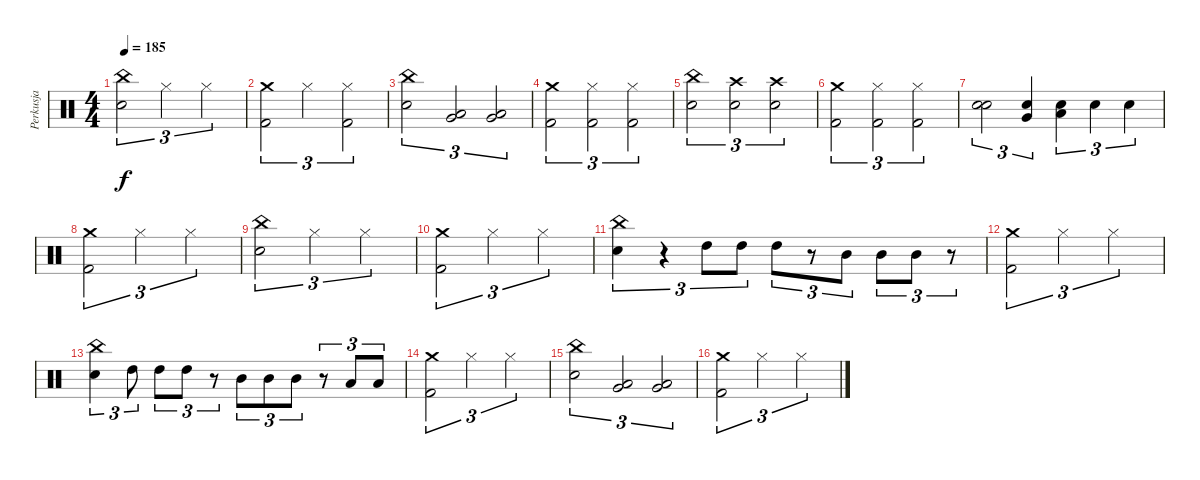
\track ("Perkusja" "Perkusja") {instrument percussion}
\staff {score}
\articulation defaults
\ts (4 4)
\tempo 185
\clef neutral
\ks c
("Snare (hit) 2" "China (hit)").2{tu (3 2) dy f} "Hi-Hat (closed)".2{tu (3 2)} "Hi-Hat (closed)".2{tu (3 2)} |
("Kick (hit) 2" "Crash medium (hit)").2{tu (3 2)} "Hi-Hat (closed)".2{tu (3 2)} ("Kick (hit) 2" "Hi-Hat (closed)").2{tu (3 2)} |
("China (hit)" "Snare (hit) 2").2{tu (3 2)} ("Low Tom (hit)" "Very Low Tom (hit)").2{tu (3 2)} ("Very Low Tom (hit)" "Low Floor Tom (hit)").2{tu (3 2)} |
("Kick (hit) 2" "Crash medium (hit)").2{tu (3 2)} ("Kick (hit) 2" "Hi-Hat (closed)").2{tu (3 2)} ("Kick (hit) 2" "Hi-Hat (closed)").2{tu (3 2)} |
("Snare (hit) 2" "China (hit)").2{tu (3 2)} ("Snare (hit) 2" "Crash high (hit)").2{tu (3 2)} ("Snare (hit) 2" "Crash high (hit)").2{tu (3 2)} |
("Kick (hit) 2" "Crash medium (hit)").2{tu (3 2)} ("Kick (hit) 2" "Hi-Hat (closed)").2{tu (3 2)} ("Kick (hit) 2" "Hi-Hat (closed)").2{tu (3 2)} |
("Snare (hit) 2" "Snare (hit) 2").2{tu (3 2)} ("Snare (hit) 2" "Very Low Tom (hit)").4{tu (3 2)} ("Snare (hit) 2" "Low Floor Tom (hit)").4{tu (3 2)} "Snare (hit) 2".4{tu (3 2)} "Snare (hit) 2".4{tu (3 2)} |
("Kick (hit) 2" "Crash medium (hit)").2{tu (3 2)} "Hi-Hat (closed)".2{tu (3 2)} "Hi-Hat (closed)".2{tu (3 2)} |
("Snare (hit) 2" "China (hit)").2{tu (3 2)} "Hi-Hat (closed)".2{tu (3 2)} "Hi-Hat (closed)".2{tu (3 2)} |
("Kick (hit) 2" "Crash medium (hit)").2{tu (3 2)} "Hi-Hat (closed)".2{tu (3 2)} "Hi-Hat (closed)".2{tu (3 2)} |
("Snare (hit) 2" "China (hit)").4{tu (3 2)} r.4{tu (3 2)} "High Tom (hit)".8{tu (3 2)} "High Tom (hit)".8{tu (3 2)} "High Tom (hit)".8{tu (3 2)} r.8{tu (3 2)} "Mid Tom (hit)".8{tu (3 2)} "Mid Tom (hit)".8{tu (3 2)} "Mid Tom (hit)".8{tu (3 2)} r.8{tu (3 2)} |
("Kick (hit) 2" "Crash medium (hit)").2{tu (3 2)} "Hi-Hat (closed)".2{tu (3 2)} "Hi-Hat (closed)".2{tu (3 2)} |
("Snare (hit) 2" "China (hit)").4{tu (3 2)} "High Tom (hit)".8{tu (3 2)} "High Tom (hit)".8{tu (3 2)} "High Tom (hit)".8{tu (3 2)} r.8{tu (3 2)} "Mid Tom (hit)".8{tu (3 2)} "Mid Tom (hit)".8{tu (3 2)} "Mid Tom (hit)".8{tu (3 2)} r.8{tu (3 2)} "Low Tom (hit)".8{tu (3 2)} "Low Tom (hit)".8{tu (3 2)} |
("Kick (hit) 2" "Crash medium (hit)").2{tu (3 2)} "Hi-Hat (closed)".2{tu (3 2)} "Hi-Hat (closed)".2{tu (3 2)} |
("China (hit)" "Snare (hit) 2").2{tu (3 2)} ("Low Tom (hit)" "Very Low Tom (hit)").2{tu (3 2)} ("Very Low Tom (hit)" "Low Floor Tom (hit)").2{tu (3 2)} |
("Kick (hit) 2" "Crash medium (hit)").2{tu (3 2)} "Hi-Hat (closed)".2{tu (3 2)} "Hi-Hat (closed)".2{tu (3 2)}
